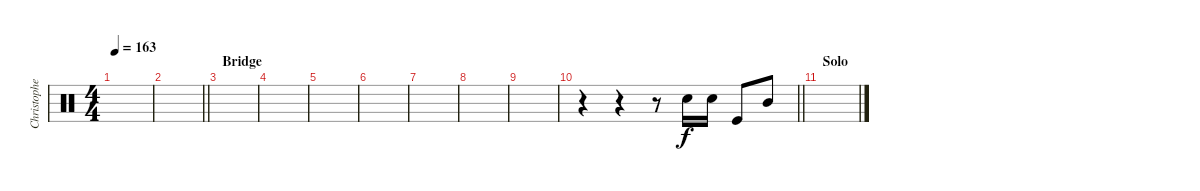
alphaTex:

\track ("Christopher - Drums" "Christophe") {instrument percussion}
\staff {score}
\articulation defaults
\ts (4 4)
\tempo 163
\clef neutral
\ks c
|
\barLineRight lightlight
|
\section ("" "Bridge")
|
|
|
|
|
|
|
\barLineRight lightlight
r.4 r.4 r.8 "Snare (hit) 2".16 "Snare (hit) 2".16 "Kick (hit)".8 "Mid Tom (hit)".8 |
\section ("" "Solo")
